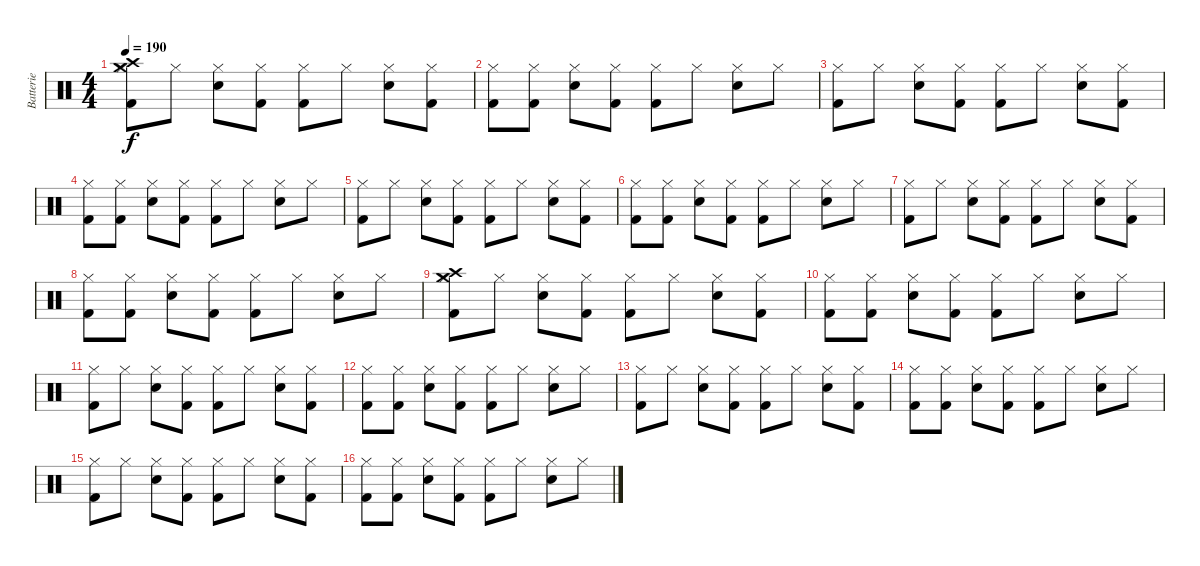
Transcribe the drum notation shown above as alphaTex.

\track ("Batterie" "Batterie") {instrument percussion}
\staff {score}
\articulation defaults
\ts (4 4)
\tempo 190
\clef neutral
\ks c
("Hi-Hat (closed)" "Crash high (hit)" "Crash medium (hit)" "Kick (hit) 2").8{dy f} "Hi-Hat (closed)".8 ("Hi-Hat (closed)" "Electric Snare (hit)").8 ("Hi-Hat (closed)" "Kick (hit) 2").8 ("Hi-Hat (closed)" "Kick (hit) 2").8 "Hi-Hat (closed)".8 ("Hi-Hat (closed)" "Electric Snare (hit)").8 ("Hi-Hat (closed)" "Kick (hit) 2").8 |
("Hi-Hat (closed)" "Kick (hit) 2").8 ("Hi-Hat (closed)" "Kick (hit) 2").8 ("Hi-Hat (closed)" "Electric Snare (hit)").8 ("Hi-Hat (closed)" "Kick (hit) 2").8 ("Hi-Hat (closed)" "Kick (hit) 2").8 "Hi-Hat (closed)".8 ("Hi-Hat (closed)" "Electric Snare (hit)").8 "Hi-Hat (closed)".8 |
("Hi-Hat (closed)" "Kick (hit) 2").8 "Hi-Hat (closed)".8 ("Hi-Hat (closed)" "Electric Snare (hit)").8 ("Hi-Hat (closed)" "Kick (hit) 2").8 ("Hi-Hat (closed)" "Kick (hit) 2").8 "Hi-Hat (closed)".8 ("Hi-Hat (closed)" "Electric Snare (hit)").8 ("Hi-Hat (closed)" "Kick (hit) 2").8 |
("Hi-Hat (closed)" "Kick (hit) 2").8 ("Hi-Hat (closed)" "Kick (hit) 2").8 ("Hi-Hat (closed)" "Electric Snare (hit)").8 ("Hi-Hat (closed)" "Kick (hit) 2").8 ("Hi-Hat (closed)" "Kick (hit) 2").8 "Hi-Hat (closed)".8 ("Hi-Hat (closed)" "Electric Snare (hit)").8 "Hi-Hat (closed)".8 |
("Hi-Hat (closed)" "Kick (hit) 2").8 "Hi-Hat (closed)".8 ("Hi-Hat (closed)" "Electric Snare (hit)").8 ("Hi-Hat (closed)" "Kick (hit) 2").8 ("Hi-Hat (closed)" "Kick (hit) 2").8 "Hi-Hat (closed)".8 ("Hi-Hat (closed)" "Electric Snare (hit)").8 ("Hi-Hat (closed)" "Kick (hit) 2").8 |
("Hi-Hat (closed)" "Kick (hit) 2").8 ("Hi-Hat (closed)" "Kick (hit) 2").8 ("Hi-Hat (closed)" "Electric Snare (hit)").8 ("Hi-Hat (closed)" "Kick (hit) 2").8 ("Hi-Hat (closed)" "Kick (hit) 2").8 "Hi-Hat (closed)".8 ("Hi-Hat (closed)" "Electric Snare (hit)").8 "Hi-Hat (closed)".8 |
("Hi-Hat (closed)" "Kick (hit) 2").8 "Hi-Hat (closed)".8 ("Hi-Hat (closed)" "Electric Snare (hit)").8 ("Hi-Hat (closed)" "Kick (hit) 2").8 ("Hi-Hat (closed)" "Kick (hit) 2").8 "Hi-Hat (closed)".8 ("Hi-Hat (closed)" "Electric Snare (hit)").8 ("Hi-Hat (closed)" "Kick (hit) 2").8 |
("Hi-Hat (closed)" "Kick (hit) 2").8 ("Hi-Hat (closed)" "Kick (hit) 2").8 ("Hi-Hat (closed)" "Electric Snare (hit)").8 ("Hi-Hat (closed)" "Kick (hit) 2").8 ("Hi-Hat (closed)" "Kick (hit) 2").8 "Hi-Hat (closed)".8 ("Hi-Hat (closed)" "Electric Snare (hit)").8 "Hi-Hat (closed)".8 |
("Hi-Hat (closed)" "Crash high (hit)" "Crash medium (hit)" "Kick (hit) 2").8 "Hi-Hat (closed)".8 ("Hi-Hat (closed)" "Electric Snare (hit)").8 ("Hi-Hat (closed)" "Kick (hit) 2").8 ("Hi-Hat (closed)" "Kick (hit) 2").8 "Hi-Hat (closed)".8 ("Hi-Hat (closed)" "Electric Snare (hit)").8 ("Hi-Hat (closed)" "Kick (hit) 2").8 |
("Hi-Hat (closed)" "Kick (hit) 2").8 ("Hi-Hat (closed)" "Kick (hit) 2").8 ("Hi-Hat (closed)" "Electric Snare (hit)").8 ("Hi-Hat (closed)" "Kick (hit) 2").8 ("Hi-Hat (closed)" "Kick (hit) 2").8 "Hi-Hat (closed)".8 ("Hi-Hat (closed)" "Electric Snare (hit)").8 "Hi-Hat (closed)".8 |
("Hi-Hat (closed)" "Kick (hit) 2").8 "Hi-Hat (closed)".8 ("Hi-Hat (closed)" "Electric Snare (hit)").8 ("Hi-Hat (closed)" "Kick (hit) 2").8 ("Hi-Hat (closed)" "Kick (hit) 2").8 "Hi-Hat (closed)".8 ("Hi-Hat (closed)" "Electric Snare (hit)").8 ("Hi-Hat (closed)" "Kick (hit) 2").8 |
("Hi-Hat (closed)" "Kick (hit) 2").8 ("Hi-Hat (closed)" "Kick (hit) 2").8 ("Hi-Hat (closed)" "Electric Snare (hit)").8 ("Hi-Hat (closed)" "Kick (hit) 2").8 ("Hi-Hat (closed)" "Kick (hit) 2").8 "Hi-Hat (closed)".8 ("Hi-Hat (closed)" "Electric Snare (hit)").8 "Hi-Hat (closed)".8 |
("Hi-Hat (closed)" "Kick (hit) 2").8 "Hi-Hat (closed)".8 ("Hi-Hat (closed)" "Electric Snare (hit)").8 ("Hi-Hat (closed)" "Kick (hit) 2").8 ("Hi-Hat (closed)" "Kick (hit) 2").8 "Hi-Hat (closed)".8 ("Hi-Hat (closed)" "Electric Snare (hit)").8 ("Hi-Hat (closed)" "Kick (hit) 2").8 |
("Hi-Hat (closed)" "Kick (hit) 2").8 ("Hi-Hat (closed)" "Kick (hit) 2").8 ("Hi-Hat (closed)" "Electric Snare (hit)").8 ("Hi-Hat (closed)" "Kick (hit) 2").8 ("Hi-Hat (closed)" "Kick (hit) 2").8 "Hi-Hat (closed)".8 ("Hi-Hat (closed)" "Electric Snare (hit)").8 "Hi-Hat (closed)".8 |
("Hi-Hat (closed)" "Kick (hit) 2").8 "Hi-Hat (closed)".8 ("Hi-Hat (closed)" "Electric Snare (hit)").8 ("Hi-Hat (closed)" "Kick (hit) 2").8 ("Hi-Hat (closed)" "Kick (hit) 2").8 "Hi-Hat (closed)".8 ("Hi-Hat (closed)" "Electric Snare (hit)").8 ("Hi-Hat (closed)" "Kick (hit) 2").8 |
("Hi-Hat (closed)" "Kick (hit) 2").8 ("Hi-Hat (closed)" "Kick (hit) 2").8 ("Hi-Hat (closed)" "Electric Snare (hit)").8 ("Hi-Hat (closed)" "Kick (hit) 2").8 ("Hi-Hat (closed)" "Kick (hit) 2").8 "Hi-Hat (closed)".8 ("Hi-Hat (closed)" "Electric Snare (hit)").8 "Hi-Hat (closed)".8
